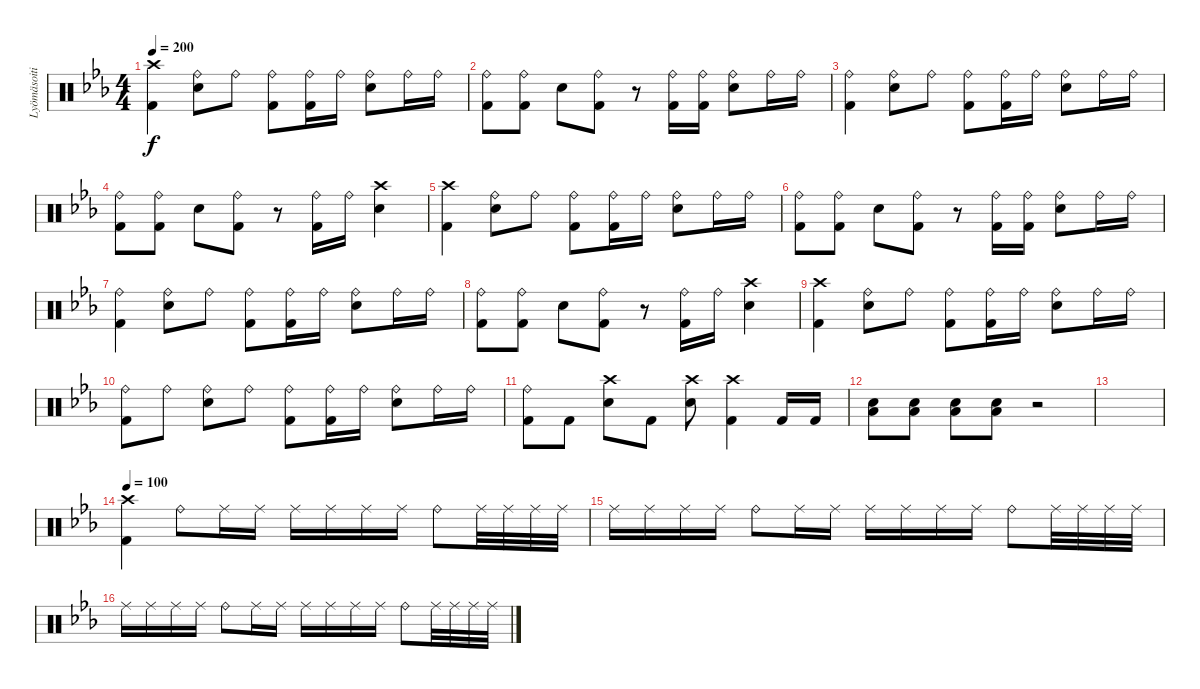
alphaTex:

\track ("Lyömäsoitin" "Lyömäsoiti") {instrument percussion}
\staff {score}
\articulation defaults
\ts (4 4)
\tempo 200
\clef neutral
\ks eb
("Crash high (hit)" "Kick (hit) 2").4{dy f} ("Ride (bell)" "Snare (hit) 2").8 "Ride (bell)".8 ("Ride (bell)" "Kick (hit) 2").8 ("Ride (bell)" "Kick (hit) 2").16 "Ride (bell)".16 ("Ride (bell)" "Snare (hit) 2").8 "Ride (bell)".16 "Ride (bell)".16 |
("Ride (bell)" "Kick (hit) 2").8 ("Ride (bell)" "Kick (hit) 2").8 "Snare (hit) 2".8 ("Ride (bell)" "Kick (hit) 2").8 r.8 ("Ride (bell)" "Kick (hit) 2").16 ("Ride (bell)" "Kick (hit) 2").16 ("Ride (bell)" "Snare (hit) 2").8 "Ride (bell)".16 "Ride (bell)".16 |
("Ride (bell)" "Kick (hit) 2").4 ("Ride (bell)" "Snare (hit) 2").8 "Ride (bell)".8 ("Ride (bell)" "Kick (hit) 2").8 ("Ride (bell)" "Kick (hit) 2").16 "Ride (bell)".16 ("Ride (bell)" "Snare (hit) 2").8 "Ride (bell)".16 "Ride (bell)".16 |
("Ride (bell)" "Kick (hit) 2").8 ("Ride (bell)" "Kick (hit) 2").8 "Snare (hit) 2".8 ("Ride (bell)" "Kick (hit) 2").8 r.8 ("Ride (bell)" "Kick (hit) 2").16 "Ride (bell)".16 ("Crash high (hit)" "Snare (hit) 2").4 |
("Crash high (hit)" "Kick (hit) 2").4 ("Ride (bell)" "Snare (hit) 2").8 "Ride (bell)".8 ("Ride (bell)" "Kick (hit) 2").8 ("Ride (bell)" "Kick (hit) 2").16 "Ride (bell)".16 ("Ride (bell)" "Snare (hit) 2").8 "Ride (bell)".16 "Ride (bell)".16 |
("Ride (bell)" "Kick (hit) 2").8 ("Ride (bell)" "Kick (hit) 2").8 "Snare (hit) 2".8 ("Ride (bell)" "Kick (hit) 2").8 r.8 ("Ride (bell)" "Kick (hit) 2").16 ("Ride (bell)" "Kick (hit) 2").16 ("Ride (bell)" "Snare (hit) 2").8 "Ride (bell)".16 "Ride (bell)".16 |
("Ride (bell)" "Kick (hit) 2").4 ("Ride (bell)" "Snare (hit) 2").8 "Ride (bell)".8 ("Ride (bell)" "Kick (hit) 2").8 ("Ride (bell)" "Kick (hit) 2").16 "Ride (bell)".16 ("Ride (bell)" "Snare (hit) 2").8 "Ride (bell)".16 "Ride (bell)".16 |
("Ride (bell)" "Kick (hit) 2").8 ("Ride (bell)" "Kick (hit) 2").8 "Snare (hit) 2".8 ("Ride (bell)" "Kick (hit) 2").8 r.8 ("Ride (bell)" "Kick (hit) 2").16 "Ride (bell)".16 ("Crash high (hit)" "Snare (hit) 2").4 |
("Crash high (hit)" "Kick (hit) 2").4 ("Ride (bell)" "Snare (hit) 2").8 "Ride (bell)".8 ("Ride (bell)" "Kick (hit) 2").8 ("Ride (bell)" "Kick (hit) 2").16 "Ride (bell)".16 ("Ride (bell)" "Snare (hit) 2").8 "Ride (bell)".16 "Ride (bell)".16 |
("Ride (bell)" "Kick (hit) 2").8 "Ride (bell)".8 ("Ride (bell)" "Snare (hit) 2").8 "Ride (bell)".8 ("Ride (bell)" "Kick (hit) 2").8 ("Ride (bell)" "Kick (hit) 2").16 "Ride (bell)".16 ("Ride (bell)" "Snare (hit) 2").8 "Ride (bell)".16 "Ride (bell)".16 |
("Ride (bell)" "Kick (hit) 2").8 "Kick (hit) 2".8 ("Crash high (hit)" "Snare (hit) 2").8 "Kick (hit) 2".8 ("Crash high (hit)" "Snare (hit) 2").8 ("Crash high (hit)" "Kick (hit) 2").4 "Kick (hit) 2".16 "Kick (hit) 2".16 |
("Snare (hit) 2" "Low Tom (hit)").8 ("Snare (hit) 2" "Low Tom (hit)").8 ("Snare (hit) 2" "Low Tom (hit)").8 ("Snare (hit) 2" "Low Tom (hit)").8 r.2 |
|
\tempo 100
("Crash high (hit)" "Kick (hit) 2").4 "Ride (bell)".8 "Ride (middle)".16 "Ride (middle)".16 "Ride (middle)".16 "Ride (middle)".16 "Ride (middle)".16 "Ride (middle)".16 "Ride (bell)".8 "Ride (middle)".32 "Ride (middle)".32 "Ride (middle)".32 "Ride (middle)".32 |
"Ride (middle)".16 "Ride (middle)".16 "Ride (middle)".16 "Ride (middle)".16 "Ride (bell)".8 "Ride (middle)".16 "Ride (middle)".16 "Ride (middle)".16 "Ride (middle)".16 "Ride (middle)".16 "Ride (middle)".16 "Ride (bell)".8 "Ride (middle)".32 "Ride (middle)".32 "Ride (middle)".32 "Ride (middle)".32 |
"Ride (middle)".16 "Ride (middle)".16 "Ride (middle)".16 "Ride (middle)".16 "Ride (bell)".8 "Ride (middle)".16 "Ride (middle)".16 "Ride (middle)".16 "Ride (middle)".16 "Ride (middle)".16 "Ride (middle)".16 "Ride (bell)".8 "Ride (middle)".32 "Ride (middle)".32 "Ride (middle)".32 "Ride (middle)".32
